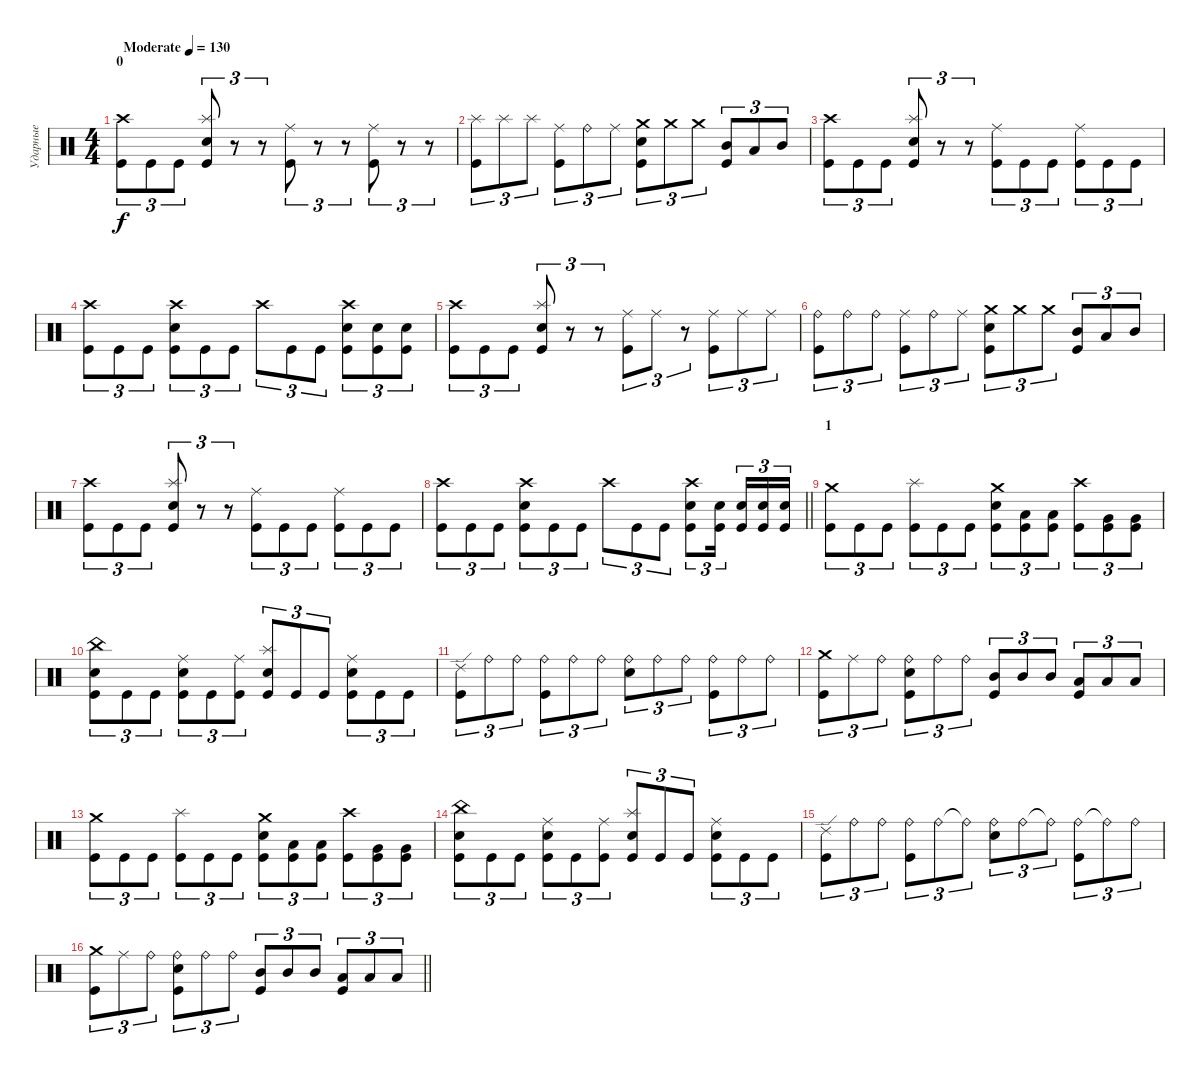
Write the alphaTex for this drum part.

\track ("Ударные" "Ударные") {instrument percussion}
\staff {score}
\articulation defaults
\ts (4 4)
\section ("" "0")
\tempo (130 "Moderate")
\clef neutral
\ks c
("Crash high (hit)" "Kick (hit)").8{tu (3 2) dy f} "Kick (hit)".8{tu (3 2)} "Kick (hit)".8{tu (3 2)} ("Splash (hit)" "Electric Snare (hit)" "Kick (hit)").8{tu (3 2)} r.8{tu (3 2)} r.8{tu (3 2)} ("Ride (middle)" "Kick (hit)").8{tu (3 2)} r.8{tu (3 2)} r.8{tu (3 2)} ("Ride (middle)" "Kick (hit)").8{tu (3 2)} r.8{tu (3 2)} r.8{tu (3 2)} |
("Splash (hit)" "Kick (hit)").8{tu (3 2)} "Splash (hit)".8{tu (3 2)} "Splash (hit)".8{tu (3 2)} ("Ride (middle)" "Kick (hit)").8{tu (3 2)} "Ride (bell)".8{tu (3 2)} "Ride (middle)".8{tu (3 2)} ("Crash medium (hit)" "Electric Snare (hit)" "Kick (hit)").8{tu (3 2)} "Crash medium (hit)".8{tu (3 2)} "Crash medium (hit)".8{tu (3 2)} ("Mid Tom (hit)" "Kick (hit)").8{tu (3 2)} "Low Tom (hit)".8{tu (3 2)} "Mid Tom (hit)".8{tu (3 2)} |
("Crash high (hit)" "Kick (hit)").8{tu (3 2)} "Kick (hit)".8{tu (3 2)} "Kick (hit)".8{tu (3 2)} ("Splash (hit)" "Electric Snare (hit)" "Kick (hit)").8{tu (3 2)} r.8{tu (3 2)} r.8{tu (3 2)} ("Ride (middle)" "Kick (hit)").8{tu (3 2)} "Kick (hit)".8{tu (3 2)} "Kick (hit)".8{tu (3 2)} ("Ride (middle)" "Kick (hit)").8{tu (3 2)} "Kick (hit)".8{tu (3 2)} "Kick (hit)".8{tu (3 2)} |
("Crash high (hit)" "Kick (hit)").8{tu (3 2)} "Kick (hit)".8{tu (3 2)} "Kick (hit)".8{tu (3 2)} ("Crash high (hit)" "Electric Snare (hit)" "Kick (hit)").8{tu (3 2)} "Kick (hit)".8{tu (3 2)} "Kick (hit)".8{tu (3 2)} "Crash high (hit)".8{tu (3 2)} "Kick (hit)".8{tu (3 2)} "Kick (hit)".8{tu (3 2)} ("Crash high (hit)" "Electric Snare (hit)" "Kick (hit)").8{tu (3 2)} ("Electric Snare (hit)" "Kick (hit)").8{tu (3 2)} ("Electric Snare (hit)" "Kick (hit)").8{tu (3 2)} |
("Crash high (hit)" "Kick (hit)").8{tu (3 2)} "Kick (hit)".8{tu (3 2)} "Kick (hit)".8{tu (3 2)} ("Splash (hit)" "Electric Snare (hit)" "Kick (hit)").8{tu (3 2)} r.8{tu (3 2)} r.8{tu (3 2)} ("Ride (middle)" "Kick (hit)").8{tu (3 2)} "Ride (middle)".8{tu (3 2)} r.8{tu (3 2)} ("Ride (middle)" "Kick (hit)").8{tu (3 2)} "Ride (middle)".8{tu (3 2)} "Ride (middle)".8{tu (3 2)} |
("Ride (bell)" "Kick (hit)").8{tu (3 2)} "Ride (bell)".8{tu (3 2)} "Ride (bell)".8{tu (3 2)} ("Ride (middle)" "Kick (hit)").8{tu (3 2)} "Ride (bell)".8{tu (3 2)} "Ride (middle)".8{tu (3 2)} ("Crash medium (hit)" "Electric Snare (hit)" "Kick (hit)").8{tu (3 2)} "Crash medium (hit)".8{tu (3 2)} "Crash medium (hit)".8{tu (3 2)} ("Mid Tom (hit)" "Kick (hit)").8{tu (3 2)} "Low Tom (hit)".8{tu (3 2)} "Mid Tom (hit)".8{tu (3 2)} |
("Crash high (hit)" "Kick (hit)").8{tu (3 2)} "Kick (hit)".8{tu (3 2)} "Kick (hit)".8{tu (3 2)} ("Splash (hit)" "Electric Snare (hit)" "Kick (hit)").8{tu (3 2)} r.8{tu (3 2)} r.8{tu (3 2)} ("Ride (middle)" "Kick (hit)").8{tu (3 2)} "Kick (hit)".8{tu (3 2)} "Kick (hit)".8{tu (3 2)} ("Ride (middle)" "Kick (hit)").8{tu (3 2)} "Kick (hit)".8{tu (3 2)} "Kick (hit)".8{tu (3 2)} |
\barLineRight lightlight
("Crash high (hit)" "Kick (hit)").8{tu (3 2)} "Kick (hit)".8{tu (3 2)} "Kick (hit)".8{tu (3 2)} ("Crash high (hit)" "Electric Snare (hit)" "Kick (hit)").8{tu (3 2)} "Kick (hit)".8{tu (3 2)} "Kick (hit)".8{tu (3 2)} "Crash high (hit)".8{tu (3 2)} "Kick (hit)".8{tu (3 2)} "Kick (hit)".8{tu (3 2)} ("Crash high (hit)" "Electric Snare (hit)" "Kick (hit)").8{tu (3 2)} ("Electric Snare (hit)" "Kick (hit)").16{tu (3 2) beam splitsecondary} ("Electric Snare (hit)" "Kick (hit)").16{tu (3 2)} ("Electric Snare (hit)" "Kick (hit)").16{tu (3 2)} ("Electric Snare (hit)" "Kick (hit)").16{tu (3 2)} |
\section ("" "1")
("Crash medium (hit)" "Kick (hit)").8{tu (3 2)} "Kick (hit)".8{tu (3 2)} "Kick (hit)".8{tu (3 2)} ("Splash (hit)" "Kick (hit)").8{tu (3 2)} "Kick (hit)".8{tu (3 2)} "Kick (hit)".8{tu (3 2)} ("Crash medium (hit)" "Electric Snare (hit)" "Kick (hit)").8{tu (3 2)} ("Low Tom (hit)" "Kick (hit)").8{tu (3 2)} ("Low Tom (hit)" "Kick (hit)").8{tu (3 2)} ("Crash high (hit)" "Kick (hit)").8{tu (3 2)} ("Very Low Tom (hit)" "Kick (hit)").8{tu (3 2)} ("Very Low Tom (hit)" "Kick (hit)").8{tu (3 2)} |
("China (hit)" "Electric Snare (hit)" "Kick (hit)").8{tu (3 2)} "Kick (hit)".8{tu (3 2)} "Kick (hit)".8{tu (3 2)} ("Ride (middle)" "Electric Snare (hit)" "Kick (hit)").8{tu (3 2)} "Kick (hit)".8{tu (3 2)} ("Ride (middle)" "Kick (hit)").8{tu (3 2)} ("Splash (hit)" "Electric Snare (hit)" "Kick (hit)").8{tu (3 2)} "Kick (hit)".8{tu (3 2)} "Kick (hit)".8{tu (3 2)} ("Ride (middle)" "Electric Snare (hit)" "Kick (hit)").8{tu (3 2)} "Kick (hit)".8{tu (3 2)} "Kick (hit)".8{tu (3 2)} |
("Ride (edge) 2" "Kick (hit)").8{tu (3 2)} "Ride (bell)".8{tu (3 2)} "Ride (bell)".8{tu (3 2)} ("Ride (bell)" "Kick (hit)").8{tu (3 2)} "Ride (bell)".8{tu (3 2)} "Ride (bell)".8{tu (3 2)} ("Ride (bell)" "Electric Snare (hit)").8{tu (3 2)} "Ride (bell)".8{tu (3 2)} "Ride (bell)".8{tu (3 2)} ("Ride (bell)" "Kick (hit)").8{tu (3 2)} "Ride (bell)".8{tu (3 2)} "Ride (bell)".8{tu (3 2)} |
("Crash medium (hit)" "Kick (hit)").8{tu (3 2)} "Ride (middle)".8{tu (3 2)} "Ride (bell)".8{tu (3 2)} ("Ride (bell)" "Electric Snare (hit)" "Kick (hit)").8{tu (3 2)} "Ride (bell)".8{tu (3 2)} "Ride (bell)".8{tu (3 2)} ("Mid Tom (hit)" "Kick (hit)").8{tu (3 2)} "Mid Tom (hit)".8{tu (3 2)} "Mid Tom (hit)".8{tu (3 2)} ("Low Tom (hit)" "Kick (hit)").8{tu (3 2)} "Low Tom (hit)".8{tu (3 2)} "Low Tom (hit)".8{tu (3 2)} |
("Crash medium (hit)" "Kick (hit)").8{tu (3 2)} "Kick (hit)".8{tu (3 2)} "Kick (hit)".8{tu (3 2)} ("Splash (hit)" "Kick (hit)").8{tu (3 2)} "Kick (hit)".8{tu (3 2)} "Kick (hit)".8{tu (3 2)} ("Crash medium (hit)" "Electric Snare (hit)" "Kick (hit)").8{tu (3 2)} ("Low Tom (hit)" "Kick (hit)").8{tu (3 2)} ("Low Tom (hit)" "Kick (hit)").8{tu (3 2)} ("Crash high (hit)" "Kick (hit)").8{tu (3 2)} ("Very Low Tom (hit)" "Kick (hit)").8{tu (3 2)} ("Very Low Tom (hit)" "Kick (hit)").8{tu (3 2)} |
("China (hit)" "Electric Snare (hit)" "Kick (hit)").8{tu (3 2)} "Kick (hit)".8{tu (3 2)} "Kick (hit)".8{tu (3 2)} ("Ride (middle)" "Electric Snare (hit)" "Kick (hit)").8{tu (3 2)} "Kick (hit)".8{tu (3 2)} ("Ride (middle)" "Kick (hit)").8{tu (3 2)} ("Splash (hit)" "Electric Snare (hit)" "Kick (hit)").8{tu (3 2)} "Kick (hit)".8{tu (3 2)} "Kick (hit)".8{tu (3 2)} ("Ride (middle)" "Electric Snare (hit)" "Kick (hit)").8{tu (3 2)} "Kick (hit)".8{tu (3 2)} "Kick (hit)".8{tu (3 2)} |
("Ride (edge) 2" "Kick (hit)").8{tu (3 2)} "Ride (bell)".8{tu (3 2)} "Ride (bell)".8{tu (3 2)} ("Ride (bell)" "Kick (hit)").8{tu (3 2)} "Ride (bell)".8{tu (3 2)} "Ride (bell)"{t}.8{tu (3 2)} ("Ride (bell)" "Electric Snare (hit)").8{tu (3 2)} "Ride (bell)".8{tu (3 2)} "Ride (bell)"{t}.8{tu (3 2)} ("Ride (bell)" "Kick (hit)").8{tu (3 2)} "Ride (bell)"{t}.8{tu (3 2)} "Ride (bell)".8{tu (3 2)} |
\barLineRight lightlight
("Crash medium (hit)" "Kick (hit)").8{tu (3 2)} "Ride (middle)".8{tu (3 2)} "Ride (bell)".8{tu (3 2)} ("Ride (bell)" "Electric Snare (hit)" "Kick (hit)").8{tu (3 2)} "Ride (bell)".8{tu (3 2)} "Ride (bell)".8{tu (3 2)} ("Mid Tom (hit)" "Kick (hit)").8{tu (3 2)} "Mid Tom (hit)".8{tu (3 2)} "Mid Tom (hit)".8{tu (3 2)} ("Low Tom (hit)" "Kick (hit)").8{tu (3 2)} "Low Tom (hit)".8{tu (3 2)} "Low Tom (hit)".8{tu (3 2)}
